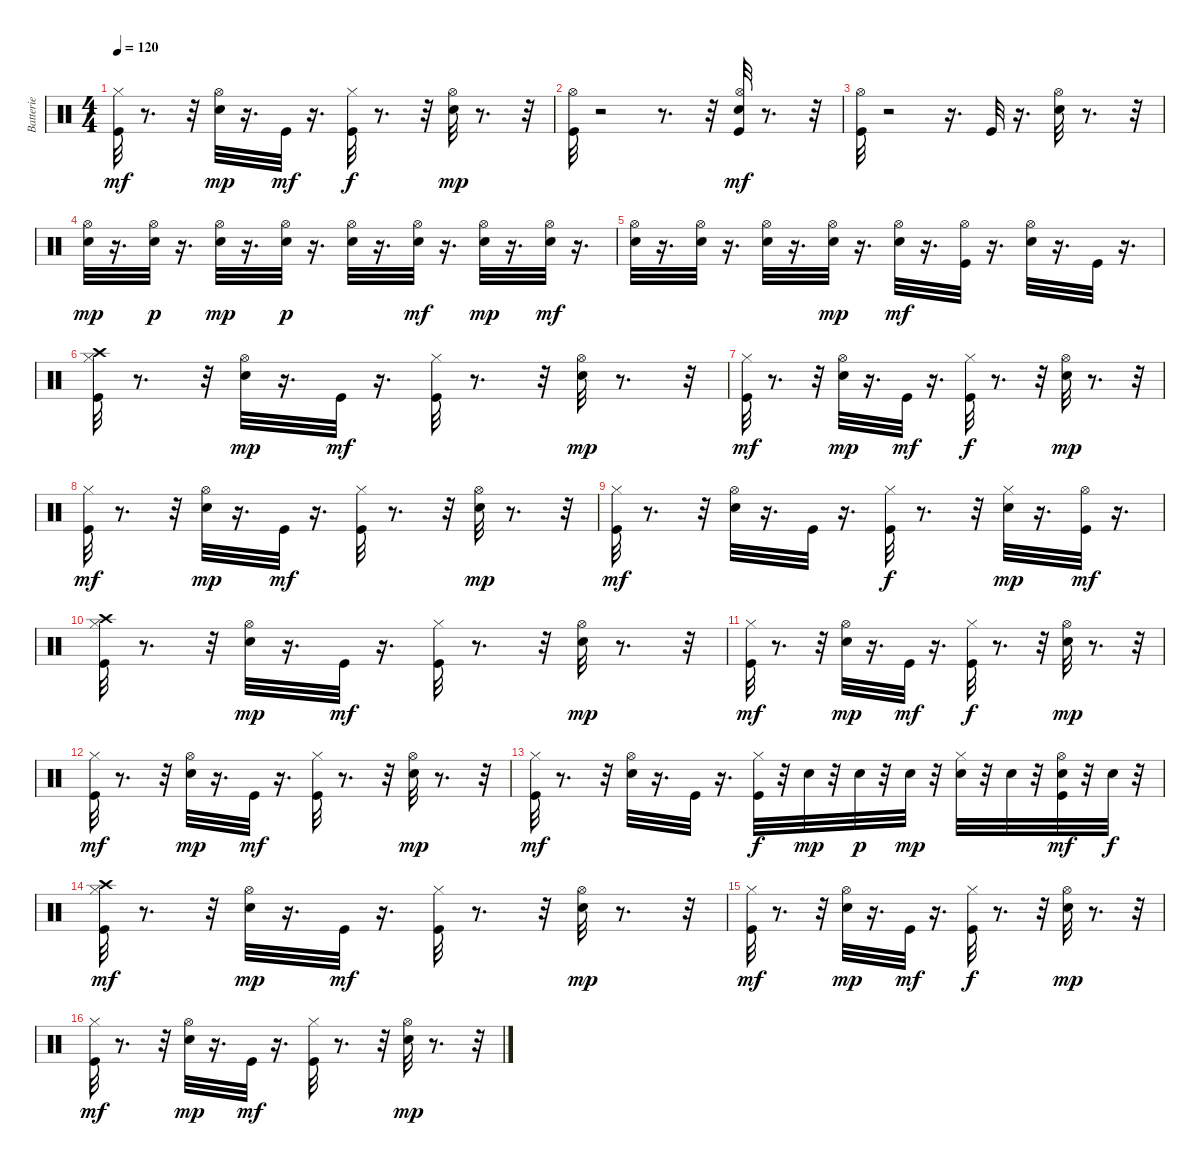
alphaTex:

\track ("Batterie" "Batterie") {instrument percussion}
\staff {score}
\articulation defaults
\ts (4 4)
\tempo 120
\clef neutral
\ks c
("Hi-Hat (closed)" "Kick (hit)").32{dy mf} r.8{d} r.32 ("Hi-Hat (open)" "Electric Snare (hit)").32{dy mp} r.16{d} "Kick (hit)".32{dy mf} r.16{d} ("Hi-Hat (closed)" "Kick (hit)").32{dy f} r.8{d} r.32 ("Hi-Hat (open)" "Electric Snare (hit)").32{dy mp} r.8{d} r.32 |
("Hi-Hat (open)" "Kick (hit)").32 r.2 r.8{d} r.32 ("Hi-Hat (open)" "Electric Snare (hit)" "Kick (hit)").32{dy mf} r.8{d} r.32 |
("Hi-Hat (open)" "Kick (hit)").32 r.2 r.16{d} "Kick (hit)".32 r.16{d} ("Hi-Hat (open)" "Electric Snare (hit)").32 r.8{d} r.32 |
("Hi-Hat (open)" "Electric Snare (hit)").32{dy mp} r.16{d} ("Hi-Hat (open)" "Electric Snare (hit)").32{dy p} r.16{d} ("Hi-Hat (open)" "Electric Snare (hit)").32{dy mp} r.16{d} ("Hi-Hat (open)" "Electric Snare (hit)").32{dy p} r.16{d} ("Hi-Hat (open)" "Electric Snare (hit)").32 r.16{d} ("Hi-Hat (open)" "Electric Snare (hit)").32{dy mf} r.16{d} ("Hi-Hat (open)" "Electric Snare (hit)").32{dy mp} r.16{d} ("Hi-Hat (open)" "Electric Snare (hit)").32{dy mf} r.16{d} |
("Hi-Hat (open)" "Electric Snare (hit)").32 r.16{d} ("Hi-Hat (open)" "Electric Snare (hit)").32 r.16{d} ("Hi-Hat (open)" "Electric Snare (hit)").32 r.16{d} ("Hi-Hat (open)" "Electric Snare (hit)").32{dy mp} r.16{d} ("Hi-Hat (open)" "Electric Snare (hit)").32{dy mf} r.16{d} ("Hi-Hat (open)" "Kick (hit)").32 r.16{d} ("Hi-Hat (open)" "Electric Snare (hit)").32 r.16{d} "Kick (hit)".32 r.16{d} |
("Crash high (hit)" "Hi-Hat (closed)" "Kick (hit)").32 r.8{d} r.32 ("Hi-Hat (open)" "Electric Snare (hit)").32{dy mp} r.16{d} "Kick (hit)".32{dy mf} r.16{d} ("Hi-Hat (closed)" "Kick (hit)").32 r.8{d} r.32 ("Hi-Hat (open)" "Electric Snare (hit)").32{dy mp} r.8{d} r.32 |
("Hi-Hat (closed)" "Kick (hit)").32{dy mf} r.8{d} r.32 ("Hi-Hat (open)" "Electric Snare (hit)").32{dy mp} r.16{d} "Kick (hit)".32{dy mf} r.16{d} ("Hi-Hat (closed)" "Kick (hit)").32{dy f} r.8{d} r.32 ("Hi-Hat (open)" "Electric Snare (hit)").32{dy mp} r.8{d} r.32 |
("Hi-Hat (closed)" "Kick (hit)").32{dy mf} r.8{d} r.32 ("Hi-Hat (open)" "Electric Snare (hit)").32{dy mp} r.16{d} "Kick (hit)".32{dy mf} r.16{d} ("Hi-Hat (closed)" "Kick (hit)").32 r.8{d} r.32 ("Hi-Hat (open)" "Electric Snare (hit)").32{dy mp} r.8{d} r.32 |
("Hi-Hat (closed)" "Kick (hit)").32{dy mf} r.8{d} r.32 ("Hi-Hat (open)" "Electric Snare (hit)").32 r.16{d} "Kick (hit)".32 r.16{d} ("Hi-Hat (closed)" "Kick (hit)").32{dy f} r.8{d} r.32 ("Hi-Hat (closed)" "Electric Snare (hit)").32{dy mp} r.16{d} ("Hi-Hat (open)" "Kick (hit)").32{dy mf} r.16{d} |
("Crash high (hit)" "Hi-Hat (closed)" "Kick (hit)").32 r.8{d} r.32 ("Hi-Hat (open)" "Electric Snare (hit)").32{dy mp} r.16{d} "Kick (hit)".32{dy mf} r.16{d} ("Hi-Hat (closed)" "Kick (hit)").32 r.8{d} r.32 ("Hi-Hat (open)" "Electric Snare (hit)").32{dy mp} r.8{d} r.32 |
("Hi-Hat (closed)" "Kick (hit)").32{dy mf} r.8{d} r.32 ("Hi-Hat (open)" "Electric Snare (hit)").32{dy mp} r.16{d} "Kick (hit)".32{dy mf} r.16{d} ("Hi-Hat (closed)" "Kick (hit)").32{dy f} r.8{d} r.32 ("Hi-Hat (open)" "Electric Snare (hit)").32{dy mp} r.8{d} r.32 |
("Hi-Hat (closed)" "Kick (hit)").32{dy mf} r.8{d} r.32 ("Hi-Hat (open)" "Electric Snare (hit)").32{dy mp} r.16{d} "Kick (hit)".32{dy mf} r.16{d} ("Hi-Hat (closed)" "Kick (hit)").32 r.8{d} r.32 ("Hi-Hat (open)" "Electric Snare (hit)").32{dy mp} r.8{d} r.32 |
("Hi-Hat (closed)" "Kick (hit)").32{dy mf} r.8{d} r.32 ("Hi-Hat (open)" "Electric Snare (hit)").32 r.16{d} "Kick (hit)".32 r.16{d} ("Hi-Hat (closed)" "Kick (hit)").32{dy f} r.32 "Electric Snare (hit)".32{dy mp} r.32 "Electric Snare (hit)".32{dy p} r.32 "Electric Snare (hit)".32{dy mp} r.32 ("Hi-Hat (closed)" "Electric Snare (hit)").32 r.32 "Electric Snare (hit)".32 r.32 ("Hi-Hat (open)" "Electric Snare (hit)" "Kick (hit)").32{dy mf} r.32 "Electric Snare (hit)".32{dy f} r.32 |
("Crash high (hit)" "Hi-Hat (closed)" "Kick (hit)").32{dy mf} r.8{d} r.32 ("Hi-Hat (open)" "Electric Snare (hit)").32{dy mp} r.16{d} "Kick (hit)".32{dy mf} r.16{d} ("Hi-Hat (closed)" "Kick (hit)").32 r.8{d} r.32 ("Hi-Hat (open)" "Electric Snare (hit)").32{dy mp} r.8{d} r.32 |
("Hi-Hat (closed)" "Kick (hit)").32{dy mf} r.8{d} r.32 ("Hi-Hat (open)" "Electric Snare (hit)").32{dy mp} r.16{d} "Kick (hit)".32{dy mf} r.16{d} ("Hi-Hat (closed)" "Kick (hit)").32{dy f} r.8{d} r.32 ("Hi-Hat (open)" "Electric Snare (hit)").32{dy mp} r.8{d} r.32 |
("Hi-Hat (closed)" "Kick (hit)").32{dy mf} r.8{d} r.32 ("Hi-Hat (open)" "Electric Snare (hit)").32{dy mp} r.16{d} "Kick (hit)".32{dy mf} r.16{d} ("Hi-Hat (closed)" "Kick (hit)").32 r.8{d} r.32 ("Hi-Hat (open)" "Electric Snare (hit)").32{dy mp} r.8{d} r.32
